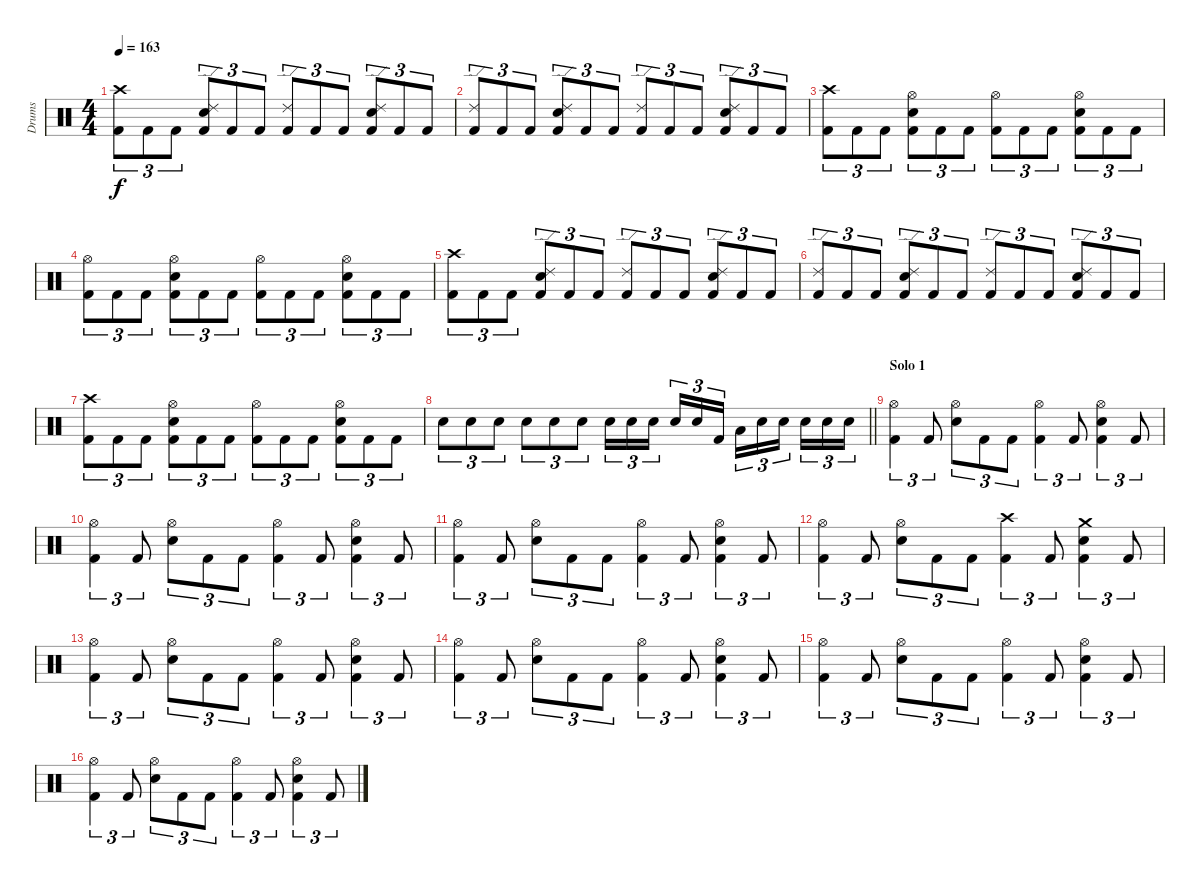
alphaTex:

\track ("Drums" "Drums") {instrument percussion}
\staff {score}
\articulation defaults
\ts (4 4)
\tempo 163
\clef neutral
\ks c
("Crash high (hit)" "Kick (hit) 2").8{tu (3 2) dy f} "Kick (hit) 2".8{tu (3 2)} "Kick (hit) 2".8{tu (3 2)} ("Ride (edge) 2" "Electric Snare (hit)" "Kick (hit) 2").8{tu (3 2)} "Kick (hit) 2".8{tu (3 2)} "Kick (hit) 2".8{tu (3 2)} ("Ride (edge) 2" "Kick (hit) 2").8{tu (3 2)} "Kick (hit) 2".8{tu (3 2)} "Kick (hit) 2".8{tu (3 2)} ("Ride (edge) 2" "Electric Snare (hit)" "Kick (hit) 2").8{tu (3 2)} "Kick (hit) 2".8{tu (3 2)} "Kick (hit) 2".8{tu (3 2)} |
("Ride (edge) 2" "Kick (hit) 2").8{tu (3 2)} "Kick (hit) 2".8{tu (3 2)} "Kick (hit) 2".8{tu (3 2)} ("Ride (edge) 2" "Electric Snare (hit)" "Kick (hit) 2").8{tu (3 2)} "Kick (hit) 2".8{tu (3 2)} "Kick (hit) 2".8{tu (3 2)} ("Ride (edge) 2" "Kick (hit) 2").8{tu (3 2)} "Kick (hit) 2".8{tu (3 2)} "Kick (hit) 2".8{tu (3 2)} ("Ride (edge) 2" "Electric Snare (hit)" "Kick (hit) 2").8{tu (3 2)} "Kick (hit) 2".8{tu (3 2)} "Kick (hit) 2".8{tu (3 2)} |
("Crash high (hit)" "Kick (hit) 2").8{tu (3 2)} "Kick (hit) 2".8{tu (3 2)} "Kick (hit) 2".8{tu (3 2)} ("Hi-Hat (open)" "Electric Snare (hit)" "Kick (hit) 2").8{tu (3 2)} "Kick (hit) 2".8{tu (3 2)} "Kick (hit) 2".8{tu (3 2)} ("Hi-Hat (open)" "Kick (hit) 2").8{tu (3 2)} "Kick (hit) 2".8{tu (3 2)} "Kick (hit) 2".8{tu (3 2)} ("Hi-Hat (open)" "Electric Snare (hit)" "Kick (hit) 2").8{tu (3 2)} "Kick (hit) 2".8{tu (3 2)} "Kick (hit) 2".8{tu (3 2)} |
("Hi-Hat (open)" "Kick (hit) 2").8{tu (3 2)} "Kick (hit) 2".8{tu (3 2)} "Kick (hit) 2".8{tu (3 2)} ("Hi-Hat (open)" "Electric Snare (hit)" "Kick (hit) 2").8{tu (3 2)} "Kick (hit) 2".8{tu (3 2)} "Kick (hit) 2".8{tu (3 2)} ("Hi-Hat (open)" "Kick (hit) 2").8{tu (3 2)} "Kick (hit) 2".8{tu (3 2)} "Kick (hit) 2".8{tu (3 2)} ("Hi-Hat (open)" "Electric Snare (hit)" "Kick (hit) 2").8{tu (3 2)} "Kick (hit) 2".8{tu (3 2)} "Kick (hit) 2".8{tu (3 2)} |
("Crash high (hit)" "Kick (hit) 2").8{tu (3 2)} "Kick (hit) 2".8{tu (3 2)} "Kick (hit) 2".8{tu (3 2)} ("Ride (edge) 2" "Electric Snare (hit)" "Kick (hit) 2").8{tu (3 2)} "Kick (hit) 2".8{tu (3 2)} "Kick (hit) 2".8{tu (3 2)} ("Ride (edge) 2" "Kick (hit) 2").8{tu (3 2)} "Kick (hit) 2".8{tu (3 2)} "Kick (hit) 2".8{tu (3 2)} ("Ride (edge) 2" "Electric Snare (hit)" "Kick (hit) 2").8{tu (3 2)} "Kick (hit) 2".8{tu (3 2)} "Kick (hit) 2".8{tu (3 2)} |
("Ride (edge) 2" "Kick (hit) 2").8{tu (3 2)} "Kick (hit) 2".8{tu (3 2)} "Kick (hit) 2".8{tu (3 2)} ("Ride (edge) 2" "Electric Snare (hit)" "Kick (hit) 2").8{tu (3 2)} "Kick (hit) 2".8{tu (3 2)} "Kick (hit) 2".8{tu (3 2)} ("Ride (edge) 2" "Kick (hit) 2").8{tu (3 2)} "Kick (hit) 2".8{tu (3 2)} "Kick (hit) 2".8{tu (3 2)} ("Ride (edge) 2" "Electric Snare (hit)" "Kick (hit) 2").8{tu (3 2)} "Kick (hit) 2".8{tu (3 2)} "Kick (hit) 2".8{tu (3 2)} |
("Crash high (hit)" "Kick (hit) 2").8{tu (3 2)} "Kick (hit) 2".8{tu (3 2)} "Kick (hit) 2".8{tu (3 2)} ("Hi-Hat (open)" "Electric Snare (hit)" "Kick (hit) 2").8{tu (3 2)} "Kick (hit) 2".8{tu (3 2)} "Kick (hit) 2".8{tu (3 2)} ("Hi-Hat (open)" "Kick (hit) 2").8{tu (3 2)} "Kick (hit) 2".8{tu (3 2)} "Kick (hit) 2".8{tu (3 2)} ("Hi-Hat (open)" "Electric Snare (hit)" "Kick (hit) 2").8{tu (3 2)} "Kick (hit) 2".8{tu (3 2)} "Kick (hit) 2".8{tu (3 2)} |
\barLineRight lightlight "Electric Snare (hit)".8{tu (3 2)} "Electric Snare (hit)".8{tu (3 2)} "Electric Snare (hit)".8{tu (3 2)} "Electric Snare (hit)".8{tu (3 2)} "Electric Snare (hit)".8{tu (3 2)} "Electric Snare (hit)".8{tu (3 2)} "Electric Snare (hit)".16{tu (3 2)} "Electric Snare (hit)".16{tu (3 2)} "Electric Snare (hit)".16{tu (3 2) beam splitsecondary} "Electric Snare (hit)".16{tu (3 2)} "Electric Snare (hit)".16{tu (3 2)} "Kick (hit) 2".16{tu (3 2)} "Low Tom (hit)".16{tu (3 2)} "Electric Snare (hit)".16{tu (3 2)} "Electric Snare (hit)".16{tu (3 2) beam splitsecondary} "Electric Snare (hit)".16{tu (3 2)} "Electric Snare (hit)".16{tu (3 2)} "Electric Snare (hit)".16{tu (3 2)}
|
\section ("" "Solo 1")
("Hi-Hat (open)" "Kick (hit) 2").4{tu (3 2)} "Kick (hit) 2".8{tu (3 2)} ("Hi-Hat (open)" "Electric Snare (hit)").8{tu (3 2)} "Kick (hit) 2".8{tu (3 2)} "Kick (hit) 2".8{tu (3 2)} ("Hi-Hat (open)" "Kick (hit) 2").4{tu (3 2)} "Kick (hit) 2".8{tu (3 2)} ("Hi-Hat (open)" "Electric Snare (hit)" "Kick (hit) 2").4{tu (3 2)} "Kick (hit) 2".8{tu (3 2)} |
("Hi-Hat (open)" "Kick (hit) 2").4{tu (3 2)} "Kick (hit) 2".8{tu (3 2)} ("Hi-Hat (open)" "Electric Snare (hit)").8{tu (3 2)} "Kick (hit) 2".8{tu (3 2)} "Kick (hit) 2".8{tu (3 2)} ("Hi-Hat (open)" "Kick (hit) 2").4{tu (3 2)} "Kick (hit) 2".8{tu (3 2)} ("Hi-Hat (open)" "Electric Snare (hit)" "Kick (hit) 2").4{tu (3 2)} "Kick (hit) 2".8{tu (3 2)} |
("Hi-Hat (open)" "Kick (hit) 2").4{tu (3 2)} "Kick (hit) 2".8{tu (3 2)} ("Hi-Hat (open)" "Electric Snare (hit)").8{tu (3 2)} "Kick (hit) 2".8{tu (3 2)} "Kick (hit) 2".8{tu (3 2)} ("Hi-Hat (open)" "Kick (hit) 2").4{tu (3 2)} "Kick (hit) 2".8{tu (3 2)} ("Hi-Hat (open)" "Electric Snare (hit)" "Kick (hit) 2").4{tu (3 2)} "Kick (hit) 2".8{tu (3 2)} |
("Hi-Hat (open)" "Kick (hit) 2").4{tu (3 2)} "Kick (hit) 2".8{tu (3 2)} ("Hi-Hat (open)" "Electric Snare (hit)").8{tu (3 2)} "Kick (hit) 2".8{tu (3 2)} "Kick (hit) 2".8{tu (3 2)} ("Crash high (hit)" "Kick (hit) 2").4{tu (3 2)} "Kick (hit) 2".8{tu (3 2)} ("Crash medium (hit)" "Electric Snare (hit)" "Kick (hit) 2").4{tu (3 2)} "Kick (hit) 2".8{tu (3 2)} |
("Hi-Hat (open)" "Kick (hit) 2").4{tu (3 2)} "Kick (hit) 2".8{tu (3 2)} ("Hi-Hat (open)" "Electric Snare (hit)").8{tu (3 2)} "Kick (hit) 2".8{tu (3 2)} "Kick (hit) 2".8{tu (3 2)} ("Hi-Hat (open)" "Kick (hit) 2").4{tu (3 2)} "Kick (hit) 2".8{tu (3 2)} ("Hi-Hat (open)" "Electric Snare (hit)" "Kick (hit) 2").4{tu (3 2)} "Kick (hit) 2".8{tu (3 2)} |
("Hi-Hat (open)" "Kick (hit) 2").4{tu (3 2)} "Kick (hit) 2".8{tu (3 2)} ("Hi-Hat (open)" "Electric Snare (hit)").8{tu (3 2)} "Kick (hit) 2".8{tu (3 2)} "Kick (hit) 2".8{tu (3 2)} ("Hi-Hat (open)" "Kick (hit) 2").4{tu (3 2)} "Kick (hit) 2".8{tu (3 2)} ("Hi-Hat (open)" "Electric Snare (hit)" "Kick (hit) 2").4{tu (3 2)} "Kick (hit) 2".8{tu (3 2)} |
("Hi-Hat (open)" "Kick (hit) 2").4{tu (3 2)} "Kick (hit) 2".8{tu (3 2)} ("Hi-Hat (open)" "Electric Snare (hit)").8{tu (3 2)} "Kick (hit) 2".8{tu (3 2)} "Kick (hit) 2".8{tu (3 2)} ("Hi-Hat (open)" "Kick (hit) 2").4{tu (3 2)} "Kick (hit) 2".8{tu (3 2)} ("Hi-Hat (open)" "Electric Snare (hit)" "Kick (hit) 2").4{tu (3 2)} "Kick (hit) 2".8{tu (3 2)} |
("Hi-Hat (open)" "Kick (hit) 2").4{tu (3 2)} "Kick (hit) 2".8{tu (3 2)} ("Hi-Hat (open)" "Electric Snare (hit)").8{tu (3 2)} "Kick (hit) 2".8{tu (3 2)} "Kick (hit) 2".8{tu (3 2)} ("Hi-Hat (open)" "Kick (hit) 2").4{tu (3 2)} "Kick (hit) 2".8{tu (3 2)} ("Hi-Hat (open)" "Electric Snare (hit)" "Kick (hit) 2").4{tu (3 2)} "Kick (hit) 2".8{tu (3 2)}
